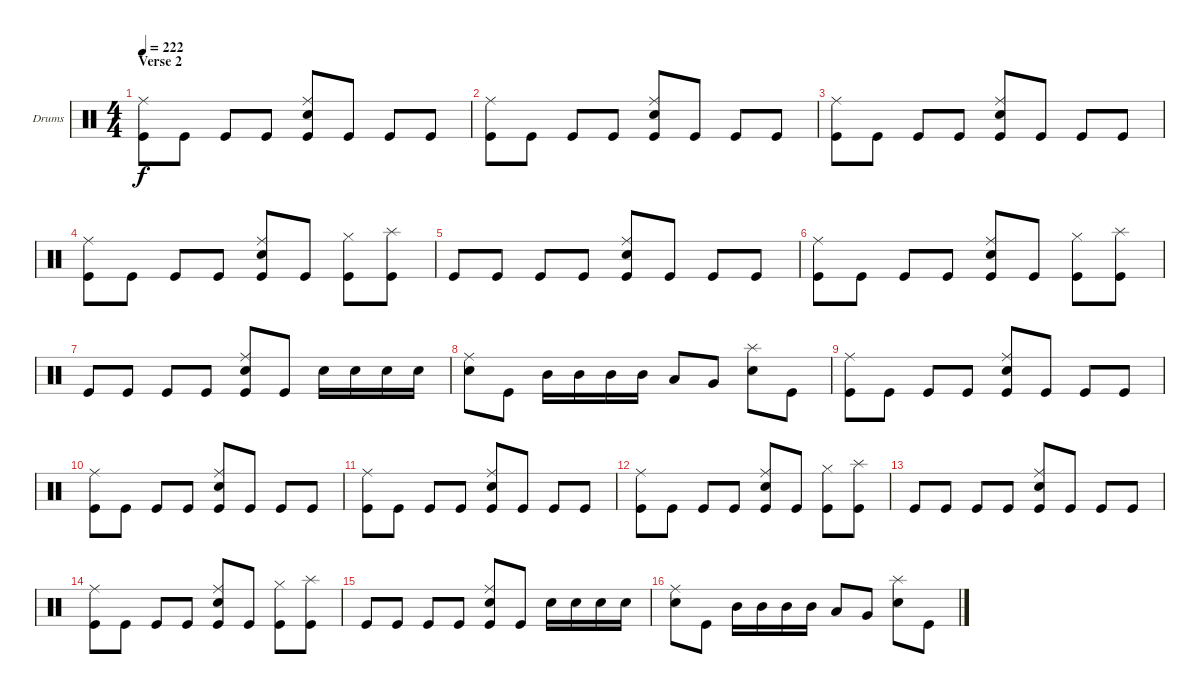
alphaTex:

\defaultSystemsLayout 4
\bracketExtendMode groupsimilarinstruments
\firstSystemTrackNameOrientation horizontal
\otherSystemsTrackNameOrientation horizontal
\track ("Drumkit" "Drums") {mute instrument percussion}
\staff {score}
\articulation defaults
\ts (4 4)
\section ("" "Verse 2")
\tempo 222
\clef neutral
\ks c
("Kick (hit)" "Ride (middle)").8{dy f} "Kick (hit)".8 "Kick (hit)".8 "Kick (hit)".8 ("Kick (hit)" "Snare (hit) 2" "Ride (middle)").8 "Kick (hit)".8 "Kick (hit)".8 "Kick (hit)".8 |
("Kick (hit)" "Ride (middle)").8 "Kick (hit)".8 "Kick (hit)".8 "Kick (hit)".8 ("Kick (hit)" "Snare (hit) 2" "Ride (middle)").8 "Kick (hit)".8 "Kick (hit)".8 "Kick (hit)".8 |
("Kick (hit)" "Ride (middle)").8 "Kick (hit)".8 "Kick (hit)".8 "Kick (hit)".8 ("Kick (hit)" "Snare (hit) 2" "Ride (middle)").8 "Kick (hit)".8 "Kick (hit)".8 "Kick (hit)".8 |
("Kick (hit)" "Ride (middle)").8 "Kick (hit)".8 "Kick (hit)".8 "Kick (hit)".8 ("Kick (hit)" "Snare (hit) 2" "Ride (middle)").8 "Kick (hit)".8 ("Kick (hit)" "Hi-Hat (closed)").8 ("Kick (hit)" "Splash (hit)").8 |
"Kick (hit)".8 "Kick (hit)".8 "Kick (hit)".8 "Kick (hit)".8 ("Kick (hit)" "Snare (hit) 2" "Ride (middle)").8 "Kick (hit)".8 "Kick (hit)".8 "Kick (hit)".8 |
("Kick (hit)" "Ride (middle)").8 "Kick (hit)".8 "Kick (hit)".8 "Kick (hit)".8 ("Kick (hit)" "Snare (hit) 2" "Ride (middle)").8 "Kick (hit)".8 ("Kick (hit)" "Hi-Hat (closed)").8 ("Kick (hit)" "Splash (hit)").8 |
"Kick (hit)".8 "Kick (hit)".8 "Kick (hit)".8 "Kick (hit)".8 ("Kick (hit)" "Snare (hit) 2" "Ride (middle)").8 "Kick (hit)".8 "Snare (hit) 2".16 "Snare (hit) 2".16 "Snare (hit) 2".16 "Snare (hit) 2".16 |
("Snare (hit) 2" "Ride (middle)").8 "Kick (hit)".8 "Mid Tom (hit)".16 "Mid Tom (hit)".16 "Mid Tom (hit)".16 "Mid Tom (hit)".16 "Low Tom (hit)".8 "Very Low Tom (hit)".8 ("Splash (hit)" "Snare (hit) 2").8 "Kick (hit)".8 |
("Kick (hit)" "Ride (middle)").8 "Kick (hit)".8 "Kick (hit)".8 "Kick (hit)".8 ("Kick (hit)" "Snare (hit) 2" "Ride (middle)").8 "Kick (hit)".8 "Kick (hit)".8 "Kick (hit)".8 |
("Kick (hit)" "Ride (middle)").8 "Kick (hit)".8 "Kick (hit)".8 "Kick (hit)".8 ("Kick (hit)" "Snare (hit) 2" "Ride (middle)").8 "Kick (hit)".8 "Kick (hit)".8 "Kick (hit)".8 |
("Kick (hit)" "Ride (middle)").8 "Kick (hit)".8 "Kick (hit)".8 "Kick (hit)".8 ("Kick (hit)" "Snare (hit) 2" "Ride (middle)").8 "Kick (hit)".8 "Kick (hit)".8 "Kick (hit)".8 |
("Kick (hit)" "Ride (middle)").8 "Kick (hit)".8 "Kick (hit)".8 "Kick (hit)".8 ("Kick (hit)" "Snare (hit) 2" "Ride (middle)").8 "Kick (hit)".8 ("Kick (hit)" "Hi-Hat (closed)").8 ("Kick (hit)" "Splash (hit)").8 |
"Kick (hit)".8 "Kick (hit)".8 "Kick (hit)".8 "Kick (hit)".8 ("Kick (hit)" "Snare (hit) 2" "Ride (middle)").8 "Kick (hit)".8 "Kick (hit)".8 "Kick (hit)".8 |
("Kick (hit)" "Ride (middle)").8 "Kick (hit)".8 "Kick (hit)".8 "Kick (hit)".8 ("Kick (hit)" "Snare (hit) 2" "Ride (middle)").8 "Kick (hit)".8 ("Kick (hit)" "Hi-Hat (closed)").8 ("Kick (hit)" "Splash (hit)").8 |
"Kick (hit)".8 "Kick (hit)".8 "Kick (hit)".8 "Kick (hit)".8 ("Kick (hit)" "Snare (hit) 2" "Ride (middle)").8 "Kick (hit)".8 "Snare (hit) 2".16 "Snare (hit) 2".16 "Snare (hit) 2".16 "Snare (hit) 2".16 |
("Snare (hit) 2" "Ride (middle)").8 "Kick (hit)".8 "Mid Tom (hit)".16 "Mid Tom (hit)".16 "Mid Tom (hit)".16 "Mid Tom (hit)".16 "Low Tom (hit)".8 "Very Low Tom (hit)".8 ("Splash (hit)" "Snare (hit) 2").8 "Kick (hit)".8
